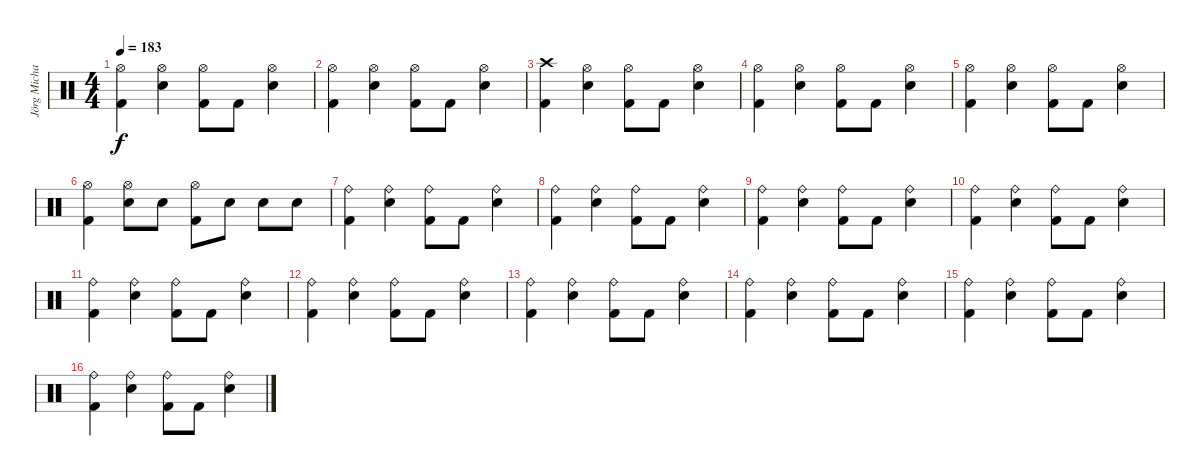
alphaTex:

\track ("Jörg Michael" "Jörg Micha") {instrument percussion}
\staff {score}
\articulation defaults
\ts (4 4)
\tempo 183
\clef neutral
\ks c
("Kick (hit) 2" "Hi-Hat (open)").4{dy f} ("Snare (hit) 2" "Hi-Hat (open)").4 ("Kick (hit) 2" "Hi-Hat (open)").8 "Kick (hit) 2".8 ("Snare (hit) 2" "Hi-Hat (open)").4 |
("Kick (hit) 2" "Hi-Hat (open)").4 ("Snare (hit) 2" "Hi-Hat (open)").4 ("Kick (hit) 2" "Hi-Hat (open)").8 "Kick (hit) 2".8 ("Snare (hit) 2" "Hi-Hat (open)").4 |
("Kick (hit) 2" "Crash high (hit)").4 ("Snare (hit) 2" "Hi-Hat (open)").4 ("Kick (hit) 2" "Hi-Hat (open)").8 "Kick (hit) 2".8 ("Snare (hit) 2" "Hi-Hat (open)").4 |
("Kick (hit) 2" "Hi-Hat (open)").4 ("Snare (hit) 2" "Hi-Hat (open)").4 ("Kick (hit) 2" "Hi-Hat (open)").8 "Kick (hit) 2".8 ("Snare (hit) 2" "Hi-Hat (open)").4 |
("Kick (hit) 2" "Hi-Hat (open)").4 ("Snare (hit) 2" "Hi-Hat (open)").4 ("Kick (hit) 2" "Hi-Hat (open)").8 "Kick (hit) 2".8 ("Snare (hit) 2" "Hi-Hat (open)").4 |
("Hi-Hat (open)" "Kick (hit) 2").4 ("Snare (hit) 2" "Hi-Hat (open)").8 "Snare (hit) 2".8 ("Kick (hit) 2" "Hi-Hat (open)").8 "Snare (hit) 2".8 "Snare (hit) 2".8 "Snare (hit) 2".8 |
("Kick (hit) 2" "Ride (bell)").4 ("Snare (hit) 2" "Ride (bell)").4 ("Kick (hit) 2" "Ride (bell)").8 "Kick (hit) 2".8 ("Snare (hit) 2" "Ride (bell)").4 |
("Kick (hit) 2" "Ride (bell)").4 ("Snare (hit) 2" "Ride (bell)").4 ("Kick (hit) 2" "Ride (bell)").8 "Kick (hit) 2".8 ("Snare (hit) 2" "Ride (bell)").4 |
("Kick (hit) 2" "Ride (bell)").4 ("Snare (hit) 2" "Ride (bell)").4 ("Kick (hit) 2" "Ride (bell)").8 "Kick (hit) 2".8 ("Snare (hit) 2" "Ride (bell)").4 |
("Kick (hit) 2" "Ride (bell)").4 ("Snare (hit) 2" "Ride (bell)").4 ("Kick (hit) 2" "Ride (bell)").8 "Kick (hit) 2".8 ("Snare (hit) 2" "Ride (bell)").4 |
("Kick (hit) 2" "Ride (bell)").4 ("Snare (hit) 2" "Ride (bell)").4 ("Kick (hit) 2" "Ride (bell)").8 "Kick (hit) 2".8 ("Snare (hit) 2" "Ride (bell)").4 |
("Kick (hit) 2" "Ride (bell)").4 ("Snare (hit) 2" "Ride (bell)").4 ("Kick (hit) 2" "Ride (bell)").8 "Kick (hit) 2".8 ("Snare (hit) 2" "Ride (bell)").4 |
("Kick (hit) 2" "Ride (bell)").4 ("Snare (hit) 2" "Ride (bell)").4 ("Kick (hit) 2" "Ride (bell)").8 "Kick (hit) 2".8 ("Snare (hit) 2" "Ride (bell)").4 |
("Kick (hit) 2" "Ride (bell)").4 ("Snare (hit) 2" "Ride (bell)").4 ("Kick (hit) 2" "Ride (bell)").8 "Kick (hit) 2".8 ("Snare (hit) 2" "Ride (bell)").4 |
("Kick (hit) 2" "Ride (bell)").4 ("Snare (hit) 2" "Ride (bell)").4 ("Kick (hit) 2" "Ride (bell)").8 "Kick (hit) 2".8 ("Snare (hit) 2" "Ride (bell)").4 |
("Kick (hit) 2" "Ride (bell)").4 ("Snare (hit) 2" "Ride (bell)").4 ("Kick (hit) 2" "Ride (bell)").8 "Kick (hit) 2".8 ("Snare (hit) 2" "Ride (bell)").4
